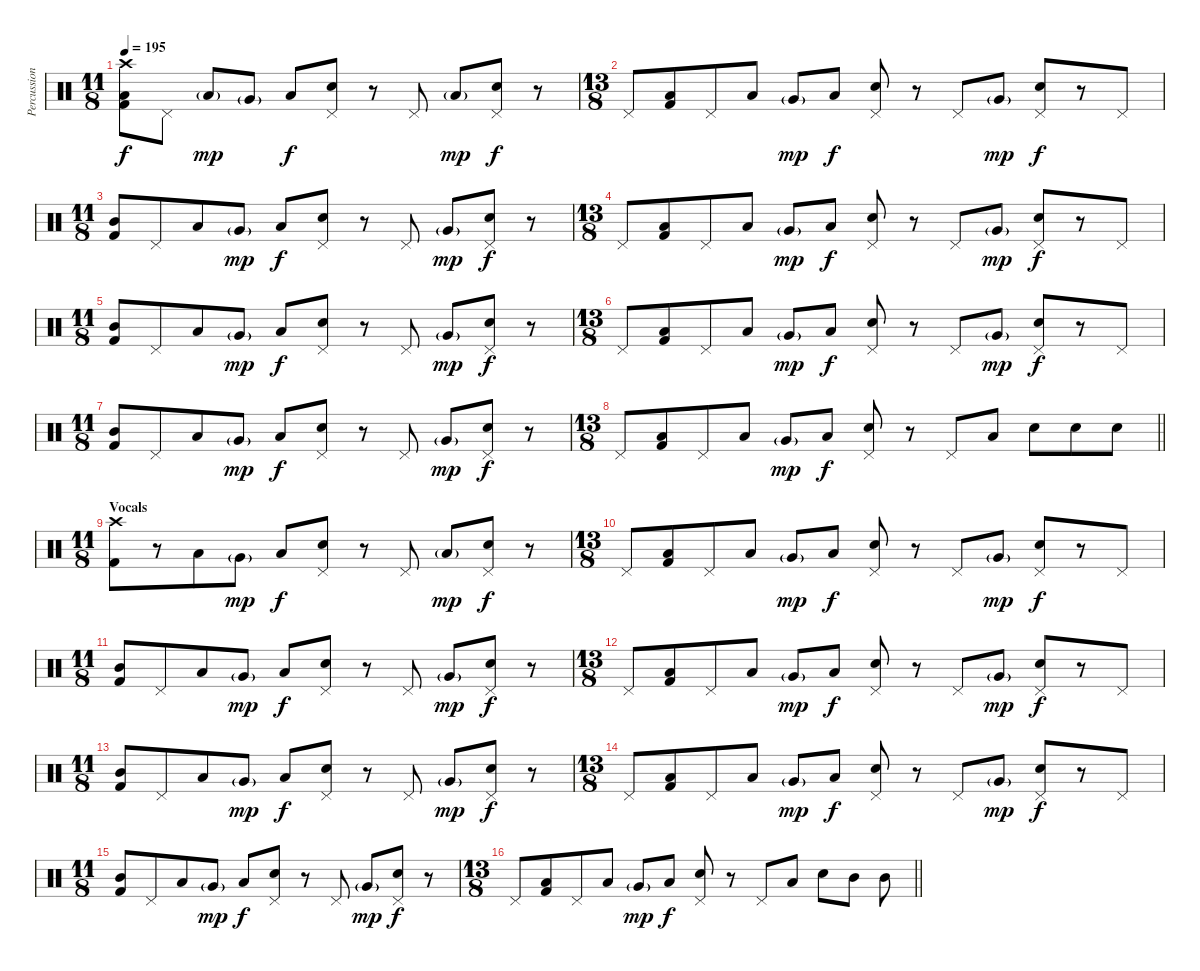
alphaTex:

\track ("Percussion" "Percussion") {instrument percussion bank 237}
\staff {score}
\articulation defaults
\ts (11 8)
\tempo 195
\clef neutral
\ks c
("Crash high (hit)" "Low Floor Tom (hit)" "Kick (hit) 2").8{dy f beam merge} "Pedal Hi-Hat (hit)".8 "Low Tom (hit)"{g}.8{dy mp} "Very Low Tom (hit)"{g}.8 "Low Floor Tom (hit)".8{dy f} ("Pedal Hi-Hat (hit)" "Electric Snare (hit)").8 r.8 "Pedal Hi-Hat (hit)".8 "Low Floor Tom (hit)"{g}.8{dy mp} ("Pedal Hi-Hat (hit)" "Electric Snare (hit)").8{dy f beam merge} r.8 |
\ts (13 8)
"Pedal Hi-Hat (hit)".8 ("Low Floor Tom (hit)" "Kick (hit) 2").8{beam merge} "Pedal Hi-Hat (hit)".8{beam merge} "Low Tom (hit)".8 "Very Low Tom (hit)"{g}.8{dy mp} "Low Floor Tom (hit)".8{dy f} ("Pedal Hi-Hat (hit)" "Electric Snare (hit)").8 r.8{beam merge} "Pedal Hi-Hat (hit)".8 "Very Low Tom (hit)"{g}.8{dy mp} ("Pedal Hi-Hat (hit)" "Electric Snare (hit)").8{dy f beam merge} r.8{beam merge} "Pedal Hi-Hat (hit)".8 |
\ts (11 8)
("Mid Tom (hit)" "Kick (hit) 2").8{beam merge} "Pedal Hi-Hat (hit)".8{beam merge} "Low Tom (hit)".8 "Very Low Tom (hit)"{g}.8{dy mp} "Low Floor Tom (hit)".8{dy f} ("Pedal Hi-Hat (hit)" "Electric Snare (hit)").8 r.8{beam merge} "Pedal Hi-Hat (hit)".8 "Very Low Tom (hit)"{g}.8{dy mp} ("Pedal Hi-Hat (hit)" "Electric Snare (hit)").8{dy f beam merge} r.8 |
\ts (13 8)
"Pedal Hi-Hat (hit)".8 ("Low Floor Tom (hit)" "Kick (hit) 2").8{beam merge} "Pedal Hi-Hat (hit)".8{beam merge} "Low Tom (hit)".8 "Very Low Tom (hit)"{g}.8{dy mp} "Low Floor Tom (hit)".8{dy f} ("Pedal Hi-Hat (hit)" "Electric Snare (hit)").8 r.8{beam merge} "Pedal Hi-Hat (hit)".8 "Very Low Tom (hit)"{g}.8{dy mp} ("Pedal Hi-Hat (hit)" "Electric Snare (hit)").8{dy f beam merge} r.8 "Pedal Hi-Hat (hit)".8 |
\ts (11 8)
("Mid Tom (hit)" "Kick (hit) 2").8{beam merge} "Pedal Hi-Hat (hit)".8{beam merge} "Low Tom (hit)".8 "Very Low Tom (hit)"{g}.8{dy mp} "Low Floor Tom (hit)".8{dy f} ("Pedal Hi-Hat (hit)" "Electric Snare (hit)").8 r.8{beam merge} "Pedal Hi-Hat (hit)".8 "Very Low Tom (hit)"{g}.8{dy mp} ("Pedal Hi-Hat (hit)" "Electric Snare (hit)").8{dy f beam merge} r.8 |
\ts (13 8)
"Pedal Hi-Hat (hit)".8 ("Low Floor Tom (hit)" "Kick (hit) 2").8{beam merge} "Pedal Hi-Hat (hit)".8{beam merge} "Low Tom (hit)".8 "Very Low Tom (hit)"{g}.8{dy mp} "Low Floor Tom (hit)".8{dy f} ("Pedal Hi-Hat (hit)" "Electric Snare (hit)").8 r.8{beam merge} "Pedal Hi-Hat (hit)".8 "Very Low Tom (hit)"{g}.8{dy mp} ("Pedal Hi-Hat (hit)" "Electric Snare (hit)").8{dy f beam merge} r.8{beam merge} "Pedal Hi-Hat (hit)".8 |
\ts (11 8)
("Mid Tom (hit)" "Kick (hit) 2").8{beam merge} "Pedal Hi-Hat (hit)".8{beam merge} "Low Tom (hit)".8 "Very Low Tom (hit)"{g}.8{dy mp} "Low Floor Tom (hit)".8{dy f} ("Pedal Hi-Hat (hit)" "Electric Snare (hit)").8 r.8{beam merge} "Pedal Hi-Hat (hit)".8 "Very Low Tom (hit)"{g}.8{dy mp} ("Pedal Hi-Hat (hit)" "Electric Snare (hit)").8{dy f beam merge} r.8 |
\ts (13 8)
\barLineRight lightlight "Pedal Hi-Hat (hit)".8
("Low Floor Tom (hit)" "Kick (hit) 2").8{beam merge} "Pedal Hi-Hat (hit)".8{beam merge} "Low Tom (hit)".8 "Very Low Tom (hit)"{g}.8{dy mp} "Low Floor Tom (hit)".8{dy f} ("Pedal Hi-Hat (hit)" "Electric Snare (hit)").8 r.8{beam merge} "Pedal Hi-Hat (hit)".8 "Low Floor Tom (hit)".8 "Electric Snare (hit)".8{beam merge} "Electric Snare (hit)".8{beam merge} "Electric Snare (hit)".8 |
\ts (11 8)
\section ("" "Vocals")
("Crash high (hit)" "Kick (hit) 2").8{beam merge} r.8{beam merge} "Low Tom (hit)".8 "Very Low Tom (hit)"{g}.8{dy mp} "Low Floor Tom (hit)".8{dy f} ("Pedal Hi-Hat (hit)" "Electric Snare (hit)").8 r.8 "Pedal Hi-Hat (hit)".8 "Low Floor Tom (hit)"{g}.8{dy mp} ("Pedal Hi-Hat (hit)" "Electric Snare (hit)").8{dy f beam merge} r.8 |
\ts (13 8)
"Pedal Hi-Hat (hit)".8 ("Low Floor Tom (hit)" "Kick (hit) 2").8{beam merge} "Pedal Hi-Hat (hit)".8{beam merge} "Low Tom (hit)".8 "Very Low Tom (hit)"{g}.8{dy mp} "Low Floor Tom (hit)".8{dy f} ("Pedal Hi-Hat (hit)" "Electric Snare (hit)").8 r.8{beam merge} "Pedal Hi-Hat (hit)".8 "Very Low Tom (hit)"{g}.8{dy mp} ("Pedal Hi-Hat (hit)" "Electric Snare (hit)").8{dy f beam merge} r.8 "Pedal Hi-Hat (hit)".8 |
\ts (11 8)
("Mid Tom (hit)" "Kick (hit) 2").8{beam merge} "Pedal Hi-Hat (hit)".8{beam merge} "Low Tom (hit)".8 "Very Low Tom (hit)"{g}.8{dy mp} "Low Floor Tom (hit)".8{dy f} ("Pedal Hi-Hat (hit)" "Electric Snare (hit)").8 r.8{beam merge} "Pedal Hi-Hat (hit)".8 "Very Low Tom (hit)"{g}.8{dy mp} ("Pedal Hi-Hat (hit)" "Electric Snare (hit)").8{dy f beam merge} r.8 |
\ts (13 8)
"Pedal Hi-Hat (hit)".8 ("Low Floor Tom (hit)" "Kick (hit) 2").8{beam merge} "Pedal Hi-Hat (hit)".8{beam merge} "Low Tom (hit)".8 "Very Low Tom (hit)"{g}.8{dy mp} "Low Floor Tom (hit)".8{dy f} ("Pedal Hi-Hat (hit)" "Electric Snare (hit)").8 r.8{beam merge} "Pedal Hi-Hat (hit)".8 "Very Low Tom (hit)"{g}.8{dy mp} ("Pedal Hi-Hat (hit)" "Electric Snare (hit)").8{dy f beam merge} r.8 "Pedal Hi-Hat (hit)".8 |
\ts (11 8)
("Mid Tom (hit)" "Kick (hit) 2").8{beam merge} "Pedal Hi-Hat (hit)".8{beam merge} "Low Tom (hit)".8 "Very Low Tom (hit)"{g}.8{dy mp} "Low Floor Tom (hit)".8{dy f} ("Pedal Hi-Hat (hit)" "Electric Snare (hit)").8 r.8{beam merge} "Pedal Hi-Hat (hit)".8 "Very Low Tom (hit)"{g}.8{dy mp} ("Pedal Hi-Hat (hit)" "Electric Snare (hit)").8{dy f beam merge} r.8 |
\ts (13 8)
"Pedal Hi-Hat (hit)".8 ("Low Floor Tom (hit)" "Kick (hit) 2").8{beam merge} "Pedal Hi-Hat (hit)".8{beam merge} "Low Tom (hit)".8 "Very Low Tom (hit)"{g}.8{dy mp} "Low Floor Tom (hit)".8{dy f} ("Pedal Hi-Hat (hit)" "Electric Snare (hit)").8 r.8{beam merge} "Pedal Hi-Hat (hit)".8 "Very Low Tom (hit)"{g}.8{dy mp} ("Pedal Hi-Hat (hit)" "Electric Snare (hit)").8{dy f beam merge} r.8{beam merge} "Pedal Hi-Hat (hit)".8 |
\ts (11 8)
("Mid Tom (hit)" "Kick (hit) 2").8{beam merge} "Pedal Hi-Hat (hit)".8{beam merge} "Low Tom (hit)".8 "Very Low Tom (hit)"{g}.8{dy mp} "Low Floor Tom (hit)".8{dy f} ("Pedal Hi-Hat (hit)" "Electric Snare (hit)").8 r.8{beam merge} "Pedal Hi-Hat (hit)".8 "Very Low Tom (hit)"{g}.8{dy mp} ("Pedal Hi-Hat (hit)" "Electric Snare (hit)").8{dy f beam merge} r.8 |
\ts (13 8)
\barLineRight lightlight "Pedal Hi-Hat (hit)".8
("Low Floor Tom (hit)" "Kick (hit) 2").8{beam merge} "Pedal Hi-Hat (hit)".8{beam merge} "Low Tom (hit)".8 "Very Low Tom (hit)"{g}.8{dy mp} "Low Floor Tom (hit)".8{dy f} ("Pedal Hi-Hat (hit)" "Electric Snare (hit)").8 r.8{beam merge} "Pedal Hi-Hat (hit)".8 "Low Floor Tom (hit)".8 "Electric Snare (hit)".8{beam merge} "Mid Tom (hit)".8 "Mid Tom (hit)".8
